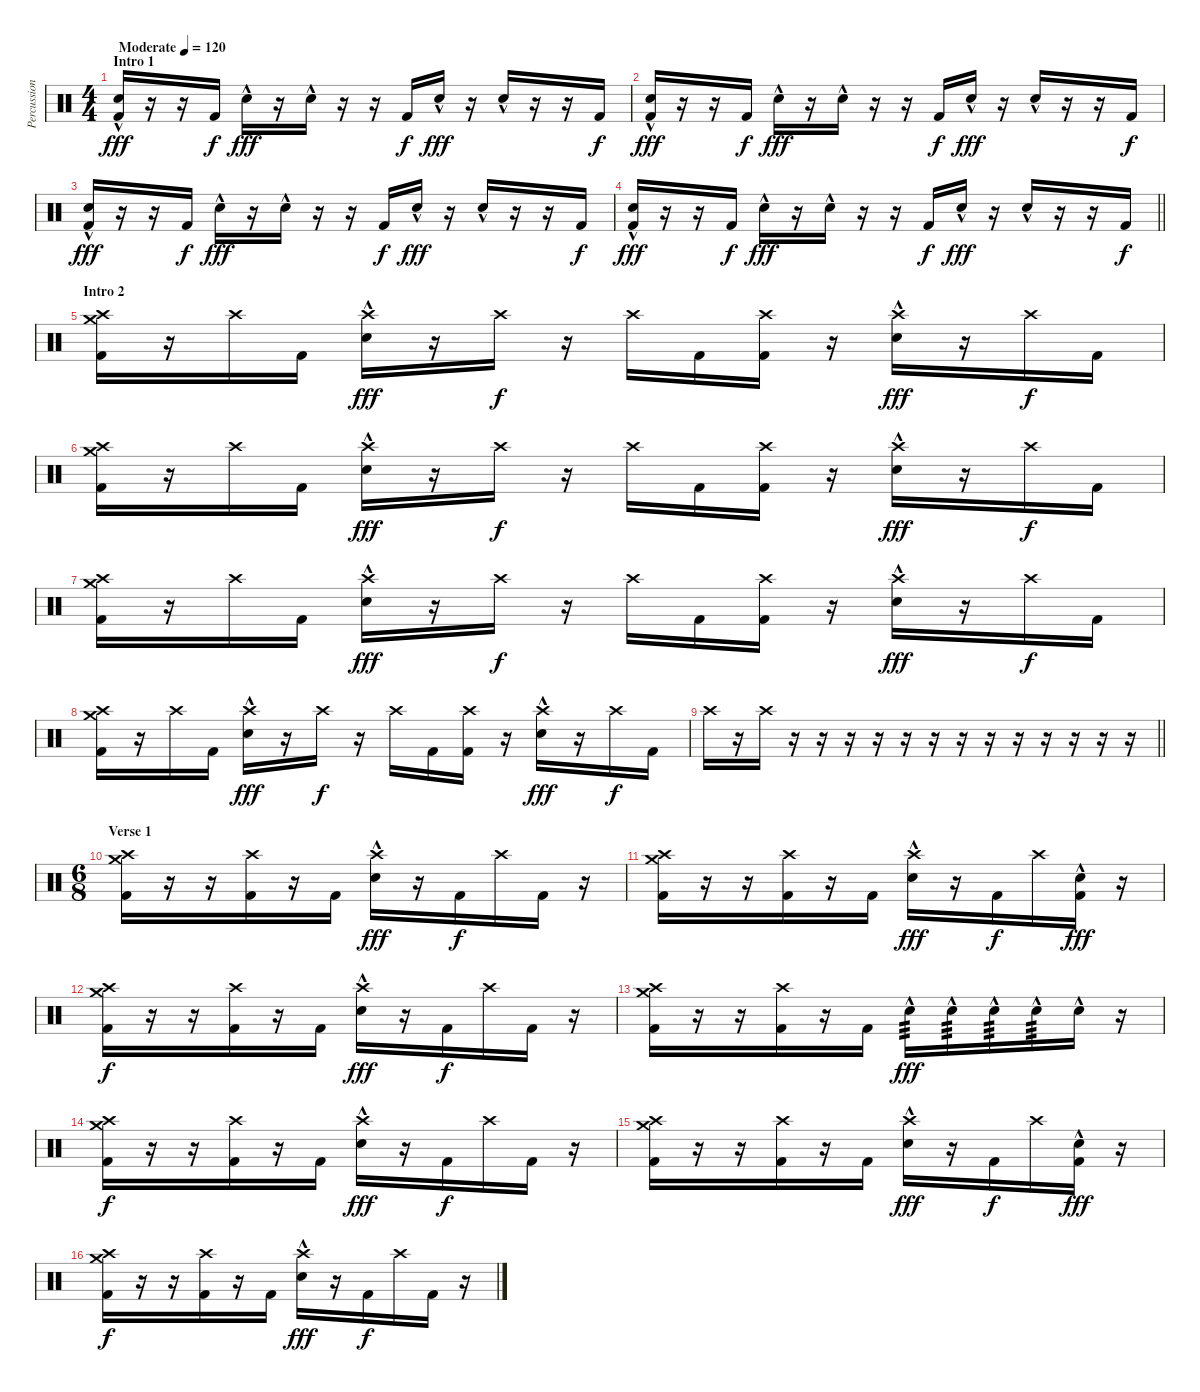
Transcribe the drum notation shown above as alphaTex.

\track ("Percussion" "Percussion") {instrument percussion}
\staff {score}
\articulation defaults
\ts (4 4)
\section ("" "Intro 1")
\tempo (120 "Moderate")
\tempo 100
\tempo (120 "Moderate")
\clef neutral
\ks c
("Kick (hit) 2" "Snare (hit) 2"{hac}).16{dy fff} r.16 r.16 "Kick (hit) 2".16{dy f} "Snare (hit) 2"{hac}.16{dy fff} r.16 "Snare (hit) 2"{hac}.16 r.16 r.16 "Kick (hit) 2".16{dy f} "Snare (hit) 2"{hac}.16{dy fff} r.16 "Snare (hit) 2"{hac}.16 r.16 r.16 "Kick (hit) 2".16{dy f} |
("Kick (hit) 2" "Snare (hit) 2"{hac}).16{dy fff} r.16 r.16 "Kick (hit) 2".16{dy f} "Snare (hit) 2"{hac}.16{dy fff} r.16 "Snare (hit) 2"{hac}.16 r.16 r.16 "Kick (hit) 2".16{dy f} "Snare (hit) 2"{hac}.16{dy fff} r.16 "Snare (hit) 2"{hac}.16 r.16 r.16 "Kick (hit) 2".16{dy f} |
("Kick (hit) 2" "Snare (hit) 2"{hac}).16{dy fff} r.16 r.16 "Kick (hit) 2".16{dy f} "Snare (hit) 2"{hac}.16{dy fff} r.16 "Snare (hit) 2"{hac}.16 r.16 r.16 "Kick (hit) 2".16{dy f} "Snare (hit) 2"{hac}.16{dy fff} r.16 "Snare (hit) 2"{hac}.16 r.16 r.16 "Kick (hit) 2".16{dy f} |
\barLineRight lightlight
("Kick (hit) 2" "Snare (hit) 2"{hac}).16{dy fff} r.16 r.16 "Kick (hit) 2".16{dy f} "Snare (hit) 2"{hac}.16{dy fff} r.16 "Snare (hit) 2"{hac}.16 r.16 r.16 "Kick (hit) 2".16{dy f} "Snare (hit) 2"{hac}.16{dy fff} r.16 "Snare (hit) 2"{hac}.16 r.16 r.16 "Kick (hit) 2".16{dy f} |
\section ("" "Intro 2")
("Kick (hit) 2" "Crash medium (hit)" "Crash high (hit)").16 r.16 "Crash high (hit)".16 "Kick (hit) 2".16 ("Snare (hit) 2"{hac} "Crash high (hit)").16{dy fff} r.16 "Crash high (hit)".16{dy f} r.16 "Crash high (hit)".16 "Kick (hit) 2".16 ("Kick (hit) 2" "Crash high (hit)").16 r.16 ("Snare (hit) 2"{hac} "Crash high (hit)").16{dy fff} r.16 "Crash high (hit)".16{dy f} "Kick (hit) 2".16 |
("Kick (hit) 2" "Crash medium (hit)" "Crash high (hit)").16 r.16 "Crash high (hit)".16 "Kick (hit) 2".16 ("Snare (hit) 2"{hac} "Crash high (hit)").16{dy fff} r.16 "Crash high (hit)".16{dy f} r.16 "Crash high (hit)".16 "Kick (hit) 2".16 ("Kick (hit) 2" "Crash high (hit)").16 r.16 ("Snare (hit) 2"{hac} "Crash high (hit)").16{dy fff} r.16 "Crash high (hit)".16{dy f} "Kick (hit) 2".16 |
("Kick (hit) 2" "Crash medium (hit)" "Crash high (hit)").16 r.16 "Crash high (hit)".16 "Kick (hit) 2".16 ("Snare (hit) 2"{hac} "Crash high (hit)").16{dy fff} r.16 "Crash high (hit)".16{dy f} r.16 "Crash high (hit)".16 "Kick (hit) 2".16 ("Kick (hit) 2" "Crash high (hit)").16 r.16 ("Snare (hit) 2"{hac} "Crash high (hit)").16{dy fff} r.16 "Crash high (hit)".16{dy f} "Kick (hit) 2".16 |
("Kick (hit) 2" "Crash medium (hit)" "Crash high (hit)").16 r.16 "Crash high (hit)".16 "Kick (hit) 2".16 ("Snare (hit) 2"{hac} "Crash high (hit)").16{dy fff} r.16 "Crash high (hit)".16{dy f} r.16 "Crash high (hit)".16 "Kick (hit) 2".16 ("Kick (hit) 2" "Crash high (hit)").16 r.16 ("Snare (hit) 2"{hac} "Crash high (hit)").16{dy fff} r.16 "Crash high (hit)".16{dy f} "Kick (hit) 2".16 |
\barLineRight lightlight "Crash high (hit)".16
r.16 "Crash high (hit)".16 r.16 r.16 r.16 r.16 r.16 r.16 r.16 r.16 r.16 r.16 r.16 r.16 r.16 |
\ts (6 8)
\section ("" "Verse 1")
("Kick (hit) 2" "Crash medium (hit)" "Crash high (hit)").16 r.16 r.16 ("Kick (hit) 2" "Crash high (hit)").16 r.16 "Kick (hit) 2".16 ("Snare (hit) 2"{hac} "Crash high (hit)").16{dy fff} r.16 "Kick (hit) 2".16{dy f} "Crash high (hit)".16 "Kick (hit) 2".16 r.16 |
("Kick (hit) 2" "Crash medium (hit)" "Crash high (hit)").16 r.16 r.16 ("Kick (hit) 2" "Crash high (hit)").16 r.16 "Kick (hit) 2".16 ("Snare (hit) 2"{hac} "Crash high (hit)").16{dy fff} r.16 "Kick (hit) 2".16{dy f} "Crash high (hit)".16 ("Kick (hit) 2" "Snare (hit) 2"{hac}).16{dy fff} r.16 |
("Kick (hit) 2" "Crash medium (hit)" "Crash high (hit)").16{dy f} r.16 r.16 ("Kick (hit) 2" "Crash high (hit)").16 r.16 "Kick (hit) 2".16 ("Snare (hit) 2"{hac} "Crash high (hit)").16{dy fff} r.16 "Kick (hit) 2".16{dy f} "Crash high (hit)".16 "Kick (hit) 2".16 r.16 |
("Kick (hit) 2" "Crash medium (hit)" "Crash high (hit)").16 r.16 r.16 ("Kick (hit) 2" "Crash high (hit)").16 r.16 "Kick (hit) 2".16 "Snare (hit) 2"{hac}.16{tp 3 dy fff} "Snare (hit) 2"{hac}.16{tp 3} "Snare (hit) 2"{hac}.16{tp 3} "Snare (hit) 2"{hac}.16{tp 3} "Snare (hit) 2"{hac}.16 r.16 |
("Kick (hit) 2" "Crash medium (hit)" "Crash high (hit)").16{dy f} r.16 r.16 ("Kick (hit) 2" "Crash high (hit)").16 r.16 "Kick (hit) 2".16 ("Snare (hit) 2"{hac} "Crash high (hit)").16{dy fff} r.16 "Kick (hit) 2".16{dy f} "Crash high (hit)".16 "Kick (hit) 2".16 r.16 |
("Kick (hit) 2" "Crash medium (hit)" "Crash high (hit)").16 r.16 r.16 ("Kick (hit) 2" "Crash high (hit)").16 r.16 "Kick (hit) 2".16 ("Snare (hit) 2"{hac} "Crash high (hit)").16{dy fff} r.16 "Kick (hit) 2".16{dy f} "Crash high (hit)".16 ("Kick (hit) 2" "Snare (hit) 2"{hac}).16{dy fff} r.16 |
("Kick (hit) 2" "Crash medium (hit)" "Crash high (hit)").16{dy f} r.16 r.16 ("Kick (hit) 2" "Crash high (hit)").16 r.16 "Kick (hit) 2".16 ("Snare (hit) 2"{hac} "Crash high (hit)").16{dy fff} r.16 "Kick (hit) 2".16{dy f} "Crash high (hit)".16 "Kick (hit) 2".16 r.16
